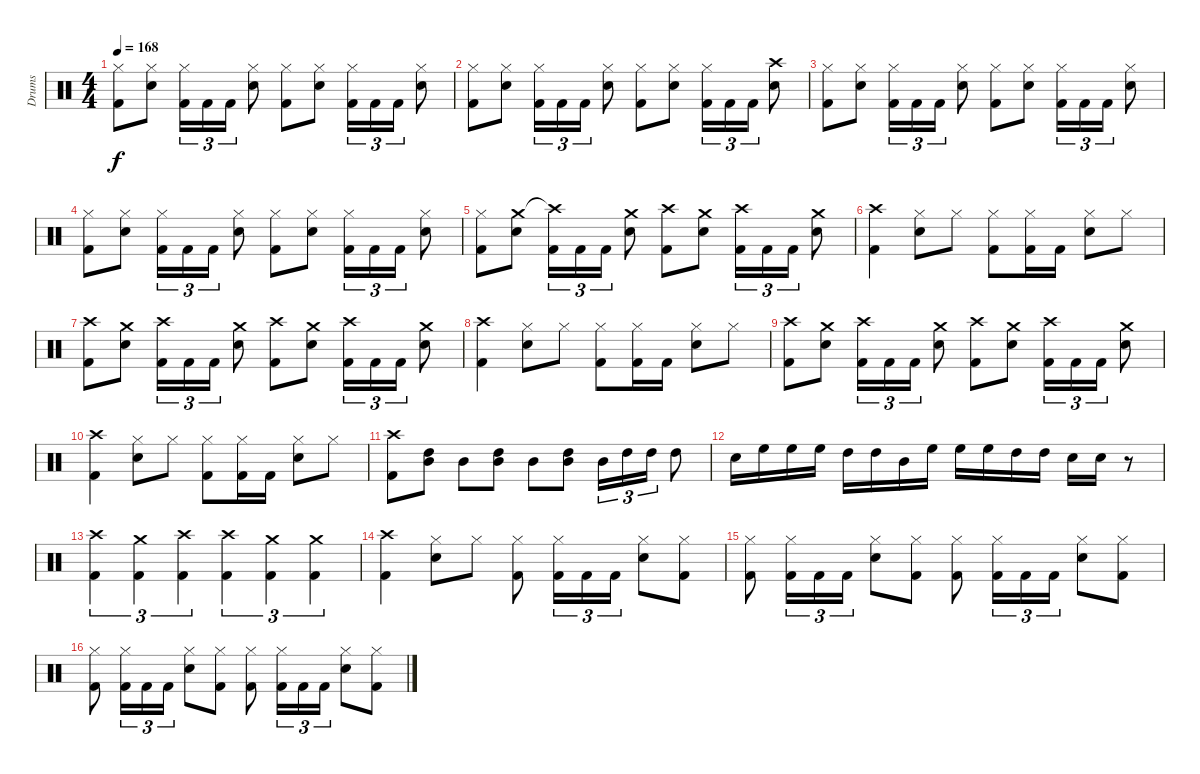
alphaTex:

\track ("Drums" "Drums") {instrument percussion}
\staff {score}
\articulation defaults
\ts (4 4)
\tempo 168
\clef neutral
\ks c
("Hi-Hat (closed)" "Kick (hit) 2").8{dy f} ("Hi-Hat (closed)" "Snare (hit) 2").8 ("Hi-Hat (closed)" "Kick (hit) 2").16{tu (3 2)} "Kick (hit) 2".16{tu (3 2)} "Kick (hit) 2".16{tu (3 2)} ("Hi-Hat (closed)" "Snare (hit) 2").8 ("Hi-Hat (closed)" "Kick (hit) 2").8 ("Hi-Hat (closed)" "Snare (hit) 2").8 ("Hi-Hat (closed)" "Kick (hit) 2").16{tu (3 2)} "Kick (hit) 2".16{tu (3 2)} "Kick (hit) 2".16{tu (3 2)} ("Hi-Hat (closed)" "Snare (hit) 2").8 |
("Hi-Hat (closed)" "Kick (hit) 2").8 ("Hi-Hat (closed)" "Snare (hit) 2").8 ("Hi-Hat (closed)" "Kick (hit) 2").16{tu (3 2)} "Kick (hit) 2".16{tu (3 2)} "Kick (hit) 2".16{tu (3 2)} ("Hi-Hat (closed)" "Snare (hit) 2").8 ("Hi-Hat (closed)" "Kick (hit) 2").8 ("Hi-Hat (closed)" "Snare (hit) 2").8 ("Hi-Hat (closed)" "Kick (hit) 2").16{tu (3 2)} "Kick (hit) 2".16{tu (3 2)} "Kick (hit) 2".16{tu (3 2)} ("Crash high (hit)" "Snare (hit) 2").8 |
("Hi-Hat (closed)" "Kick (hit) 2").8 ("Hi-Hat (closed)" "Snare (hit) 2").8 ("Hi-Hat (closed)" "Kick (hit) 2").16{tu (3 2)} "Kick (hit) 2".16{tu (3 2)} "Kick (hit) 2".16{tu (3 2)} ("Hi-Hat (closed)" "Snare (hit) 2").8 ("Hi-Hat (closed)" "Kick (hit) 2").8 ("Hi-Hat (closed)" "Snare (hit) 2").8 ("Hi-Hat (closed)" "Kick (hit) 2").16{tu (3 2)} "Kick (hit) 2".16{tu (3 2)} "Kick (hit) 2".16{tu (3 2)} ("Hi-Hat (closed)" "Snare (hit) 2").8 |
("Hi-Hat (closed)" "Kick (hit) 2").8 ("Hi-Hat (closed)" "Snare (hit) 2").8 ("Hi-Hat (closed)" "Kick (hit) 2").16{tu (3 2)} "Kick (hit) 2".16{tu (3 2)} "Kick (hit) 2".16{tu (3 2)} ("Hi-Hat (closed)" "Snare (hit) 2").8 ("Hi-Hat (closed)" "Kick (hit) 2").8 ("Hi-Hat (closed)" "Snare (hit) 2").8 ("Hi-Hat (closed)" "Kick (hit) 2").16{tu (3 2)} "Kick (hit) 2".16{tu (3 2)} "Kick (hit) 2".16{tu (3 2)} ("Hi-Hat (closed)" "Snare (hit) 2").8 |
\section ("" "")
("Hi-Hat (closed)" "Kick (hit) 2").8 ("Crash medium (hit)" "Snare (hit) 2").8 ("Crash high (hit)"{t} "Kick (hit) 2").16{tu (3 2)} "Kick (hit) 2".16{tu (3 2)} "Kick (hit) 2".16{tu (3 2)} ("Crash medium (hit)" "Snare (hit) 2").8 ("Crash high (hit)" "Kick (hit) 2").8 ("Crash medium (hit)" "Snare (hit) 2").8 ("Crash high (hit)" "Kick (hit) 2").16{tu (3 2)} "Kick (hit) 2".16{tu (3 2)} "Kick (hit) 2".16{tu (3 2)} ("Crash medium (hit)" "Snare (hit) 2").8 |
("Crash high (hit)" "Kick (hit) 2").4 ("Hi-Hat (closed)" "Snare (hit) 2").8 "Hi-Hat (closed)".8 ("Hi-Hat (closed)" "Kick (hit) 2").8 ("Hi-Hat (closed)" "Kick (hit) 2").16 "Kick (hit) 2".16 ("Hi-Hat (closed)" "Snare (hit) 2").8 "Hi-Hat (closed)".8 |
("Crash high (hit)" "Kick (hit) 2").8 ("Crash medium (hit)" "Snare (hit) 2").8 ("Crash high (hit)" "Kick (hit) 2").16{tu (3 2)} "Kick (hit) 2".16{tu (3 2)} "Kick (hit) 2".16{tu (3 2)} ("Crash medium (hit)" "Snare (hit) 2").8 ("Crash high (hit)" "Kick (hit) 2").8 ("Crash medium (hit)" "Snare (hit) 2").8 ("Crash high (hit)" "Kick (hit) 2").16{tu (3 2)} "Kick (hit) 2".16{tu (3 2)} "Kick (hit) 2".16{tu (3 2)} ("Crash medium (hit)" "Snare (hit) 2").8 |
("Crash high (hit)" "Kick (hit) 2").4 ("Hi-Hat (closed)" "Snare (hit) 2").8 "Hi-Hat (closed)".8 ("Hi-Hat (closed)" "Kick (hit) 2").8 ("Hi-Hat (closed)" "Kick (hit) 2").16 "Kick (hit) 2".16 ("Hi-Hat (closed)" "Snare (hit) 2").8 "Hi-Hat (closed)".8 |
("Crash high (hit)" "Kick (hit) 2").8 ("Crash medium (hit)" "Snare (hit) 2").8 ("Crash high (hit)" "Kick (hit) 2").16{tu (3 2)} "Kick (hit) 2".16{tu (3 2)} "Kick (hit) 2".16{tu (3 2)} ("Crash medium (hit)" "Snare (hit) 2").8 ("Crash high (hit)" "Kick (hit) 2").8 ("Crash medium (hit)" "Snare (hit) 2").8 ("Crash high (hit)" "Kick (hit) 2").16{tu (3 2)} "Kick (hit) 2".16{tu (3 2)} "Kick (hit) 2".16{tu (3 2)} ("Crash medium (hit)" "Snare (hit) 2").8 |
("Crash high (hit)" "Kick (hit) 2").4 ("Hi-Hat (closed)" "Snare (hit) 2").8 "Hi-Hat (closed)".8 ("Hi-Hat (closed)" "Kick (hit) 2").8 ("Hi-Hat (closed)" "Kick (hit) 2").16 "Kick (hit) 2".16 ("Hi-Hat (closed)" "Snare (hit) 2").8 "Hi-Hat (closed)".8 |
("Crash high (hit)" "Kick (hit) 2").8 ("High Tom (hit)" "Mid Tom (hit)").8 "Mid Tom (hit)".8 ("High Tom (hit)" "Mid Tom (hit)").8 "Mid Tom (hit)".8 ("High Tom (hit)" "Mid Tom (hit)").8 "Mid Tom (hit)".16{tu (3 2)} "High Tom (hit)".16{tu (3 2)} "High Tom (hit)".16{tu (3 2)} "High Tom (hit)".8 |
"Snare (hit) 2".16 "High Floor Tom (hit)".16 "High Floor Tom (hit)".16 "High Floor Tom (hit)".16 "High Tom (hit)".16 "High Tom (hit)".16 "Mid Tom (hit)".16 "High Floor Tom (hit)".16 "High Floor Tom (hit)".16 "High Floor Tom (hit)".16 "High Tom (hit)".16 "High Tom (hit)".16 "Snare (hit) 2".16 "Snare (hit) 2".16 r.8 |
("Crash high (hit)" "Kick (hit) 2").4{tu (3 2)} ("Crash medium (hit)" "Kick (hit) 2").4{tu (3 2)} ("Crash high (hit)" "Kick (hit) 2").4{tu (3 2)} ("Crash high (hit)" "Kick (hit) 2").4{tu (3 2)} ("Crash medium (hit)" "Kick (hit) 2").4{tu (3 2)} ("Crash medium (hit)" "Kick (hit) 2").4{tu (3 2)} |
("Crash high (hit)" "Kick (hit) 2").4 ("Hi-Hat (closed)" "Snare (hit) 2").8 "Hi-Hat (closed)".8 ("Hi-Hat (closed)" "Kick (hit) 2").8 ("Hi-Hat (closed)" "Kick (hit) 2").16{tu (3 2)} "Kick (hit) 2".16{tu (3 2)} "Kick (hit) 2".16{tu (3 2)} ("Hi-Hat (closed)" "Snare (hit) 2").8 ("Hi-Hat (closed)" "Kick (hit) 2").8 |
("Hi-Hat (closed)" "Kick (hit) 2").8 ("Hi-Hat (closed)" "Kick (hit) 2").16{tu (3 2)} "Kick (hit) 2".16{tu (3 2)} "Kick (hit) 2".16{tu (3 2)} ("Hi-Hat (closed)" "Snare (hit) 2").8 ("Hi-Hat (closed)" "Kick (hit) 2").8 ("Hi-Hat (closed)" "Kick (hit) 2").8 ("Hi-Hat (closed)" "Kick (hit) 2").16{tu (3 2)} "Kick (hit) 2".16{tu (3 2)} "Kick (hit) 2".16{tu (3 2)} ("Hi-Hat (closed)" "Snare (hit) 2").8 ("Hi-Hat (closed)" "Kick (hit) 2").8 |
("Hi-Hat (closed)" "Kick (hit) 2").8 ("Hi-Hat (closed)" "Kick (hit) 2").16{tu (3 2)} "Kick (hit) 2".16{tu (3 2)} "Kick (hit) 2".16{tu (3 2)} ("Hi-Hat (closed)" "Snare (hit) 2").8 ("Hi-Hat (closed)" "Kick (hit) 2").8 ("Hi-Hat (closed)" "Kick (hit) 2").8 ("Hi-Hat (closed)" "Kick (hit) 2").16{tu (3 2)} "Kick (hit) 2".16{tu (3 2)} "Kick (hit) 2".16{tu (3 2)} ("Hi-Hat (closed)" "Snare (hit) 2").8 ("Hi-Hat (closed)" "Kick (hit) 2").8
